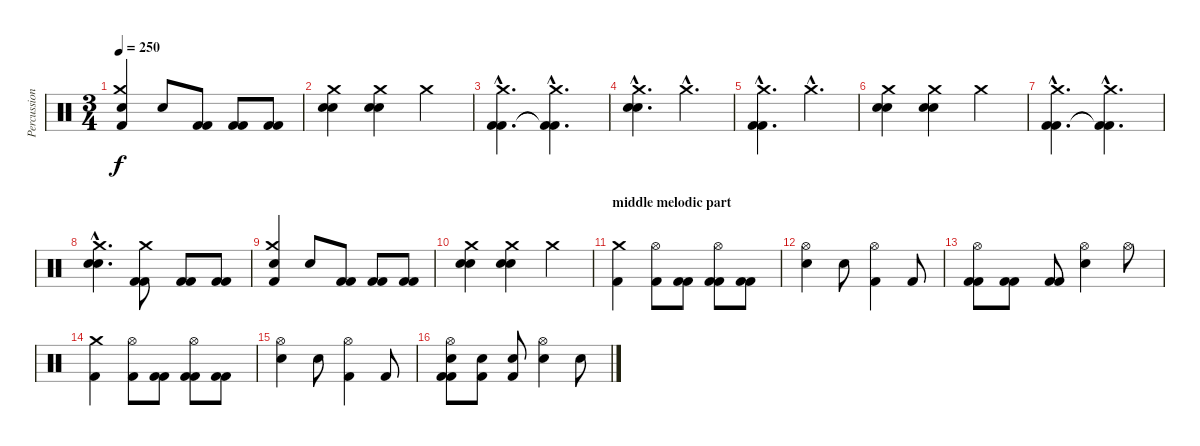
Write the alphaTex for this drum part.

\track ("Percussion" "Percussion") {instrument percussion}
\staff {score}
\articulation defaults
\ts (3 4)
\tempo 250
\clef neutral
\ks c
("Snare (hit) 2" "Crash medium (hit)" "Kick (hit) 2").4{dy f} "Snare (hit) 2".8 ("Kick (hit) 2" "Kick (hit) 2").8 ("Kick (hit) 2" "Kick (hit) 2").8 ("Kick (hit) 2" "Kick (hit) 2").8 |
("Snare (hit) 2" "Snare (hit) 2" "Crash medium (hit)").4 ("Snare (hit) 2" "Snare (hit) 2" "Crash medium (hit)").4 "Crash medium (hit)".4 |
("Crash medium (hit)"{hac} "Kick (hit) 2"{hac} "Kick (hit) 2"{hac}).4{d} ("Crash medium (hit)"{hac} "Kick (hit) 2"{hac t} "Kick (hit) 2"{hac t}).4{d} |
("Snare (hit) 2"{hac} "Snare (hit) 2"{hac} "Crash medium (hit)"{hac}).4{d} "Crash medium (hit)"{hac}.4{d} |
("Crash medium (hit)"{hac} "Kick (hit) 2"{hac} "Kick (hit) 2"{hac}).4{d} "Crash medium (hit)"{hac}.4{d} |
("Snare (hit) 2" "Snare (hit) 2" "Crash medium (hit)").4 ("Snare (hit) 2" "Snare (hit) 2" "Crash medium (hit)").4 "Crash medium (hit)".4 |
("Crash medium (hit)"{hac} "Kick (hit) 2"{hac} "Kick (hit) 2"{hac}).4{d} ("Crash medium (hit)"{hac} "Kick (hit) 2"{hac t} "Kick (hit) 2"{hac t}).4{d} |
("Snare (hit) 2"{hac} "Snare (hit) 2"{hac} "Crash medium (hit)"{hac}).4{d} ("Crash medium (hit)" "Kick (hit) 2" "Kick (hit) 2").8 ("Kick (hit) 2" "Kick (hit) 2").8 ("Kick (hit) 2" "Kick (hit) 2").8 |
("Snare (hit) 2" "Crash medium (hit)" "Kick (hit) 2").4 "Snare (hit) 2".8 ("Kick (hit) 2" "Kick (hit) 2").8 ("Kick (hit) 2" "Kick (hit) 2").8 ("Kick (hit) 2" "Kick (hit) 2").8 |
("Snare (hit) 2" "Snare (hit) 2" "Crash medium (hit)").4 ("Snare (hit) 2" "Snare (hit) 2" "Crash medium (hit)").4 "Crash medium (hit)".4 |
\section ("" "middle melodic part")
("Crash medium (hit)" "Kick (hit) 2").4 ("Hi-Hat (open)" "Kick (hit) 2").8 ("Kick (hit) 2" "Kick (hit) 2").8 ("Hi-Hat (open)" "Kick (hit) 2" "Kick (hit) 2").8 ("Kick (hit) 2" "Kick (hit) 2").8 |
("Snare (hit) 2" "Hi-Hat (open)").4 "Snare (hit) 2".8 ("Hi-Hat (open)" "Kick (hit) 2").4 "Kick (hit) 2".8 |
("Hi-Hat (open)" "Kick (hit) 2" "Kick (hit) 2").8 ("Kick (hit) 2" "Kick (hit) 2").8 ("Kick (hit) 2" "Kick (hit) 2").8 ("Snare (hit) 2" "Hi-Hat (open)").4 "Hi-Hat (open)".8 |
("Crash medium (hit)" "Kick (hit) 2").4 ("Hi-Hat (open)" "Kick (hit) 2").8 ("Kick (hit) 2" "Kick (hit) 2").8 ("Hi-Hat (open)" "Kick (hit) 2" "Kick (hit) 2").8 ("Kick (hit) 2" "Kick (hit) 2").8 |
("Snare (hit) 2" "Hi-Hat (open)").4 "Snare (hit) 2".8 ("Hi-Hat (open)" "Kick (hit) 2").4 "Kick (hit) 2".8 |
("Hi-Hat (open)" "Snare (hit) 2" "Kick (hit) 2" "Kick (hit) 2").8 ("Snare (hit) 2" "Kick (hit) 2").8 ("Snare (hit) 2" "Kick (hit) 2").8 ("Snare (hit) 2" "Hi-Hat (open)").4 "Snare (hit) 2".8
